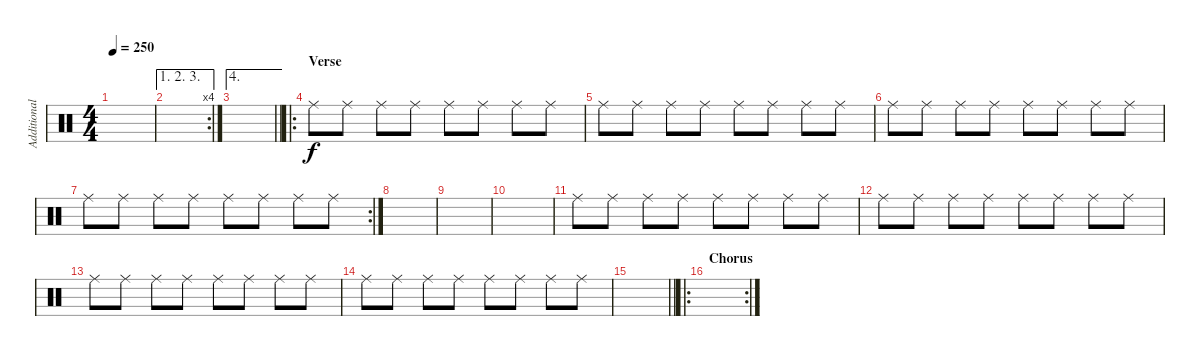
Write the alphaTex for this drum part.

\track ("Additional drums" "Additional") {instrument percussion}
\staff {score}
\articulation defaults
\ts (4 4)
\tempo 250
\clef neutral
\ks c
|
\ae (1 2 3)
\rc 4
|
\ae 4
\barLineRight lightlight
|
\ro
\section ("" "Verse")
"Ride (middle)".8 "Ride (middle)".8 "Ride (middle)".8 "Ride (middle)".8 "Ride (middle)".8 "Ride (middle)".8 "Ride (middle)".8 "Ride (middle)".8 |
"Ride (middle)".8 "Ride (middle)".8 "Ride (middle)".8 "Ride (middle)".8 "Ride (middle)".8 "Ride (middle)".8 "Ride (middle)".8 "Ride (middle)".8 |
"Ride (middle)".8 "Ride (middle)".8 "Ride (middle)".8 "Ride (middle)".8 "Ride (middle)".8 "Ride (middle)".8 "Ride (middle)".8 "Ride (middle)".8 |
\rc 2 "Ride (middle)".8 "Ride (middle)".8 "Ride (middle)".8 "Ride (middle)".8 "Ride (middle)".8 "Ride (middle)".8 "Ride (middle)".8 "Ride (middle)".8
|
|
|
|
"Ride (middle)".8 "Ride (middle)".8 "Ride (middle)".8 "Ride (middle)".8 "Ride (middle)".8 "Ride (middle)".8 "Ride (middle)".8 "Ride (middle)".8 |
"Ride (middle)".8 "Ride (middle)".8 "Ride (middle)".8 "Ride (middle)".8 "Ride (middle)".8 "Ride (middle)".8 "Ride (middle)".8 "Ride (middle)".8 |
"Ride (middle)".8 "Ride (middle)".8 "Ride (middle)".8 "Ride (middle)".8 "Ride (middle)".8 "Ride (middle)".8 "Ride (middle)".8 "Ride (middle)".8 |
"Ride (middle)".8 "Ride (middle)".8 "Ride (middle)".8 "Ride (middle)".8 "Ride (middle)".8 "Ride (middle)".8 "Ride (middle)".8 "Ride (middle)".8 |
\barLineRight lightlight
|
\ro
\rc 2
\section ("" "Chorus")
